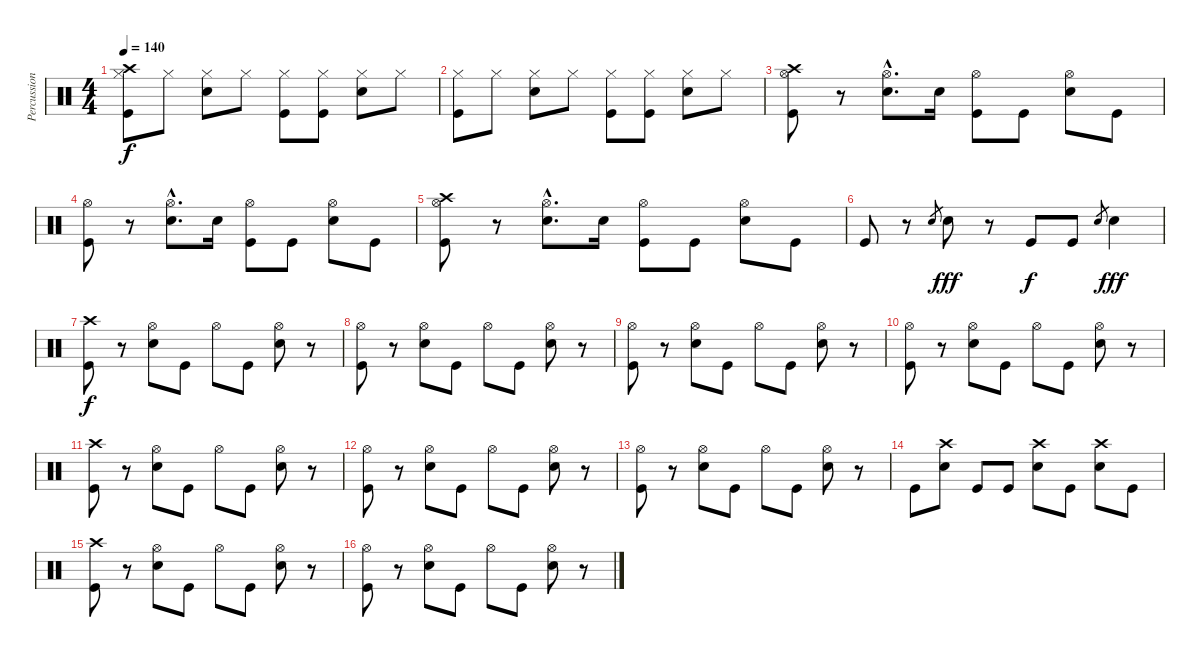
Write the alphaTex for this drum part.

\track ("Percussion" "Percussion") {instrument percussion}
\staff {score}
\articulation defaults
\ts (4 4)
\tempo 140
\clef neutral
\ks c
("Kick (hit)" "Hi-Hat (closed)" "Crash high (hit)").8{dy f} "Hi-Hat (closed)".8 ("Snare (hit) 2" "Hi-Hat (closed)").8 "Hi-Hat (closed)".8 ("Kick (hit)" "Hi-Hat (closed)").8 ("Kick (hit)" "Hi-Hat (closed)").8 ("Snare (hit) 2" "Hi-Hat (closed)").8 "Hi-Hat (closed)".8 |
("Kick (hit)" "Hi-Hat (closed)").8 "Hi-Hat (closed)".8 ("Snare (hit) 2" "Hi-Hat (closed)").8 "Hi-Hat (closed)".8 ("Kick (hit)" "Hi-Hat (closed)").8 ("Kick (hit)" "Hi-Hat (closed)").8 ("Snare (hit) 2" "Hi-Hat (closed)").8 "Hi-Hat (closed)".8 |
("Kick (hit)" "Hi-Hat (open)" "Crash high (hit)").8 r.8 ("Snare (hit) 2"{hac} "Hi-Hat (open)"{hac}).8{d} "Snare (hit) 2".16 ("Kick (hit)" "Hi-Hat (open)").8 "Kick (hit)".8 ("Snare (hit) 2" "Hi-Hat (open)").8 "Kick (hit)".8 |
("Kick (hit)" "Hi-Hat (open)").8 r.8 ("Snare (hit) 2"{hac} "Hi-Hat (open)"{hac}).8{d} "Snare (hit) 2".16 ("Kick (hit)" "Hi-Hat (open)").8 "Kick (hit)".8 ("Snare (hit) 2" "Hi-Hat (open)").8 "Kick (hit)".8 |
("Kick (hit)" "Hi-Hat (open)" "Crash high (hit)").8 r.8 ("Snare (hit) 2"{hac} "Hi-Hat (open)"{hac}).8{d} "Snare (hit) 2".16 ("Kick (hit)" "Hi-Hat (open)").8 "Kick (hit)".8 ("Snare (hit) 2" "Hi-Hat (open)").8 "Kick (hit)".8 |
"Kick (hit)".8 r.8 "Snare (hit) 2".8{gr} "Snare (hit) 2".8{dy fff} r.8 "Kick (hit)".8{dy f} "Kick (hit)".8 "Snare (hit) 2".8{gr} "Snare (hit) 2".4{dy fff} |
("Kick (hit)" "Crash high (hit)").8{dy f} r.8 ("Snare (hit) 2" "Hi-Hat (open)").8 "Kick (hit)".8 "Hi-Hat (open)".8 "Kick (hit)".8 ("Snare (hit) 2" "Hi-Hat (open)").8 r.8 |
("Kick (hit)" "Hi-Hat (open)").8 r.8 ("Snare (hit) 2" "Hi-Hat (open)").8 "Kick (hit)".8 "Hi-Hat (open)".8 "Kick (hit)".8 ("Snare (hit) 2" "Hi-Hat (open)").8 r.8 |
("Kick (hit)" "Hi-Hat (open)").8 r.8 ("Snare (hit) 2" "Hi-Hat (open)").8 "Kick (hit)".8 "Hi-Hat (open)".8 "Kick (hit)".8 ("Snare (hit) 2" "Hi-Hat (open)").8 r.8 |
("Kick (hit)" "Hi-Hat (open)").8 r.8 ("Snare (hit) 2" "Hi-Hat (open)").8 "Kick (hit)".8 "Hi-Hat (open)".8 "Kick (hit)".8 ("Snare (hit) 2" "Hi-Hat (open)").8 r.8 |
("Kick (hit)" "Crash high (hit)").8 r.8 ("Snare (hit) 2" "Hi-Hat (open)").8 "Kick (hit)".8 "Hi-Hat (open)".8 "Kick (hit)".8 ("Snare (hit) 2" "Hi-Hat (open)").8 r.8 |
("Kick (hit)" "Hi-Hat (open)").8 r.8 ("Snare (hit) 2" "Hi-Hat (open)").8 "Kick (hit)".8 "Hi-Hat (open)".8 "Kick (hit)".8 ("Snare (hit) 2" "Hi-Hat (open)").8 r.8 |
("Kick (hit)" "Hi-Hat (open)").8 r.8 ("Snare (hit) 2" "Hi-Hat (open)").8 "Kick (hit)".8 "Hi-Hat (open)".8 "Kick (hit)".8 ("Snare (hit) 2" "Hi-Hat (open)").8 r.8 |
"Kick (hit)".8 ("Snare (hit) 2" "Crash high (hit)").8 "Kick (hit)".8 "Kick (hit)".8 ("Snare (hit) 2" "Crash high (hit)").8 "Kick (hit)".8 ("Snare (hit) 2" "Crash high (hit)").8 "Kick (hit)".8 |
("Kick (hit)" "Crash high (hit)").8 r.8 ("Snare (hit) 2" "Hi-Hat (open)").8 "Kick (hit)".8 "Hi-Hat (open)".8 "Kick (hit)".8 ("Snare (hit) 2" "Hi-Hat (open)").8 r.8 |
("Kick (hit)" "Hi-Hat (open)").8 r.8 ("Snare (hit) 2" "Hi-Hat (open)").8 "Kick (hit)".8 "Hi-Hat (open)".8 "Kick (hit)".8 ("Snare (hit) 2" "Hi-Hat (open)").8 r.8
